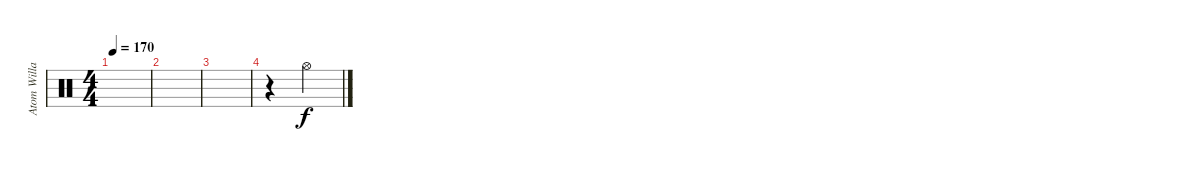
\track ("Atom Willard" "Atom Willa") {instrument percussion}
\staff {score}
\articulation defaults
\ts (4 4)
\tempo 170
\clef neutral
\ks c
|
|
|
r.4 "Hi-Hat (open)".4{dy f}
